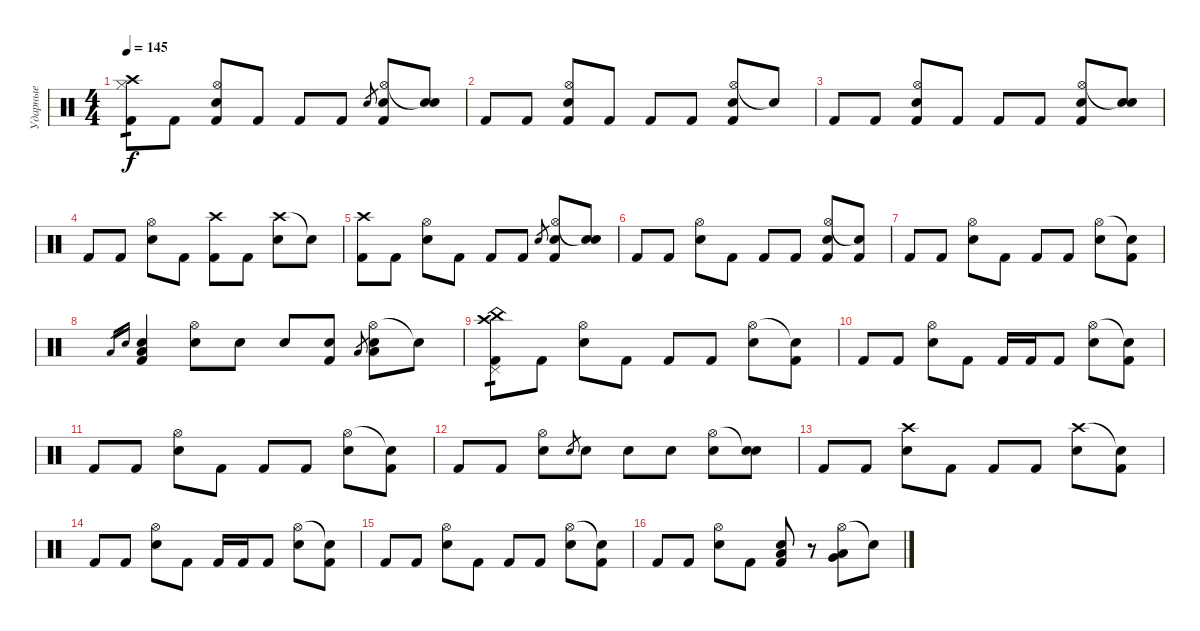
\track ("Ударные" "Ударные") {instrument percussion}
\staff {score}
\articulation defaults
\ts (4 4)
\tempo 145
\clef neutral
\ks c
("Hi-Hat (closed)" "Crash high (hit)" "Kick (hit) 2").8{tp 1 dy f} "Kick (hit) 2".8 ("Hi-Hat (open)" "Snare (hit) 2" "Kick (hit) 2").8 "Kick (hit) 2".8 "Kick (hit) 2".8 "Kick (hit) 2".8 "Snare (hit) 2".8{gr} ("Hi-Hat (open)" "Snare (hit) 2" "Kick (hit) 2").8 ("Snare (hit)"{t} "Snare (hit) 2").8 |
"Kick (hit) 2".8 "Kick (hit) 2".8 ("Hi-Hat (open)" "Snare (hit) 2" "Kick (hit) 2").8 "Kick (hit) 2".8 "Kick (hit) 2".8 "Kick (hit) 2".8 ("Hi-Hat (open)" "Snare (hit) 2" "Kick (hit) 2").8 "Snare (hit)"{t}.8 |
"Kick (hit) 2".8 "Kick (hit) 2".8 ("Hi-Hat (open)" "Snare (hit) 2" "Kick (hit) 2").8 "Kick (hit) 2".8 "Kick (hit) 2".8 "Kick (hit) 2".8 ("Hi-Hat (open)" "Snare (hit) 2" "Kick (hit) 2").8 ("Snare (hit)"{t} "Snare (hit) 2").8 |
"Kick (hit) 2".8 "Kick (hit) 2".8 ("Hi-Hat (open)" "Snare (hit) 2").8 "Kick (hit) 2".8 ("Crash high (hit)" "Kick (hit) 2").8 "Kick (hit) 2".8 ("Crash high (hit)" "Snare (hit) 2").8 "Snare (hit)"{t}.8 |
("Crash high (hit)" "Kick (hit) 2").8 "Kick (hit) 2".8 ("Hi-Hat (open)" "Snare (hit) 2").8 "Kick (hit) 2".8 "Kick (hit) 2".8 "Kick (hit) 2".8 "Snare (hit) 2".8{gr} ("Hi-Hat (open)" "Snare (hit) 2" "Kick (hit) 2").8 ("Snare (hit)"{t} "Snare (hit) 2").8 |
"Kick (hit) 2".8 "Kick (hit) 2".8 ("Hi-Hat (open)" "Snare (hit) 2").8 "Kick (hit) 2".8 "Kick (hit) 2".8 "Kick (hit) 2".8 ("Hi-Hat (open)" "Snare (hit) 2" "Kick (hit) 2").8 ("Snare (hit)"{t} "Kick (hit) 2").8 |
"Kick (hit) 2".8 "Kick (hit) 2".8 ("Hi-Hat (open)" "Snare (hit) 2").8 "Kick (hit) 2".8 "Kick (hit) 2".8 "Kick (hit) 2".8 ("Hi-Hat (open)" "Snare (hit) 2").8 ("Snare (hit)"{t} "Kick (hit) 2").8 |
"Low Floor Tom (hit)".16{gr} "Snare (hit) 2".16{gr} ("Low Floor Tom (hit)" "Snare (hit) 2" "Kick (hit) 2").4 ("Hi-Hat (open)" "Snare (hit) 2").8 "Snare (hit) 2".8 "Snare (hit) 2".8 ("Snare (hit) 2" "Kick (hit) 2").8 "Low Floor Tom (hit)".8{gr} ("Hi-Hat (open)" "Low Floor Tom (hit)" "Snare (hit) 2").8 "Snare (hit)"{t}.8 |
("Pedal Hi-Hat (hit)" "China (hit)" "Crash high (hit)" "Kick (hit) 2").8{tp 1} "Kick (hit) 2".8 ("Hi-Hat (open)" "Snare (hit) 2").8 "Kick (hit) 2".8 "Kick (hit) 2".8 "Kick (hit) 2".8 ("Hi-Hat (open)" "Snare (hit) 2").8 ("Snare (hit)"{t} "Kick (hit) 2").8 |
"Kick (hit) 2".8 "Kick (hit) 2".8 ("Hi-Hat (open)" "Snare (hit) 2").8 "Kick (hit) 2".8 "Kick (hit) 2".16 "Kick (hit) 2".16 "Kick (hit) 2".8 ("Hi-Hat (open)" "Snare (hit) 2").8 ("Snare (hit)"{t} "Kick (hit) 2").8 |
"Kick (hit) 2".8 "Kick (hit) 2".8 ("Hi-Hat (open)" "Electric Snare (hit)").8 "Kick (hit) 2".8 "Kick (hit) 2".8 "Kick (hit) 2".8 ("Hi-Hat (open)" "Electric Snare (hit)").8 ("Snare (hit)"{t} "Kick (hit) 2").8 |
"Kick (hit) 2".8 "Kick (hit) 2".8 ("Hi-Hat (open)" "Snare (hit) 2").8 "Snare (hit) 2".8{gr} "Snare (hit) 2".8 "Snare (hit) 2".8 "Snare (hit) 2".8 ("Hi-Hat (open)" "Electric Snare (hit)").8 ("Snare (hit)"{t} "Electric Snare (hit)").8 |
"Kick (hit) 2".8 "Kick (hit) 2".8 ("Crash high (hit)" "Snare (hit) 2").8 "Kick (hit) 2".8 "Kick (hit) 2".8 "Kick (hit) 2".8 ("Crash high (hit)" "Snare (hit) 2").8 ("Snare (hit)"{t} "Kick (hit) 2").8 |
"Kick (hit) 2".8 "Kick (hit) 2".8 ("Hi-Hat (open)" "Snare (hit) 2").8 "Kick (hit) 2".8 "Kick (hit) 2".16 "Kick (hit) 2".16 "Kick (hit) 2".8 ("Hi-Hat (open)" "Snare (hit) 2").8 ("Snare (hit)"{t} "Kick (hit) 2").8 |
"Kick (hit) 2".8 "Kick (hit) 2".8 ("Hi-Hat (open)" "Electric Snare (hit)").8 "Kick (hit) 2".8 "Kick (hit) 2".8 "Kick (hit) 2".8 ("Hi-Hat (open)" "Electric Snare (hit)").8 ("Snare (hit)"{t} "Kick (hit) 2").8 |
"Kick (hit) 2".8 "Kick (hit) 2".8 ("Hi-Hat (open)" "Snare (hit) 2").8 "Kick (hit) 2".8 ("Low Floor Tom (hit)" "Electric Snare (hit)" "Kick (hit) 2").8 r.8 ("Hi-Hat (open)" "Low Floor Tom (hit)" "Very Low Tom (hit)").8 "Snare (hit)"{t}.8
